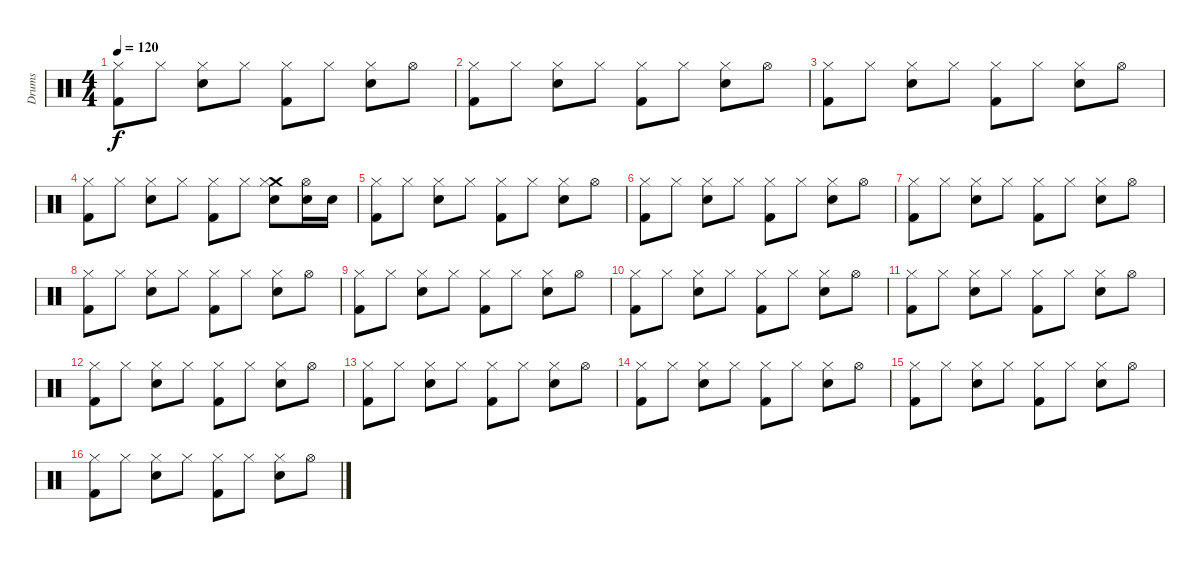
\track ("Drums" "Drums") {instrument percussion}
\staff {score}
\articulation defaults
\ts (4 4)
\tempo 120
\clef neutral
\ks c
("Hi-Hat (closed)" "Kick (hit) 2").8{dy f} "Hi-Hat (closed)".8 ("Hi-Hat (closed)" "Electric Snare (hit)").8 "Hi-Hat (closed)".8 ("Hi-Hat (closed)" "Kick (hit) 2").8 "Hi-Hat (closed)".8 ("Hi-Hat (closed)" "Electric Snare (hit)").8 "Hi-Hat (open)".8 |
("Hi-Hat (closed)" "Kick (hit) 2").8 "Hi-Hat (closed)".8 ("Hi-Hat (closed)" "Electric Snare (hit)").8 "Hi-Hat (closed)".8 ("Hi-Hat (closed)" "Kick (hit) 2").8 "Hi-Hat (closed)".8 ("Hi-Hat (closed)" "Electric Snare (hit)").8 "Hi-Hat (open)".8 |
("Hi-Hat (closed)" "Kick (hit) 2").8 "Hi-Hat (closed)".8 ("Hi-Hat (closed)" "Electric Snare (hit)").8 "Hi-Hat (closed)".8 ("Hi-Hat (closed)" "Kick (hit) 2").8 "Hi-Hat (closed)".8 ("Hi-Hat (closed)" "Electric Snare (hit)").8 "Hi-Hat (open)".8 |
("Hi-Hat (closed)" "Kick (hit) 2").8 "Hi-Hat (closed)".8 ("Hi-Hat (closed)" "Electric Snare (hit)").8 "Hi-Hat (closed)".8 ("Hi-Hat (closed)" "Kick (hit) 2").8 "Hi-Hat (closed)".8 ("Crash medium (hit)" "Hi-Hat (closed)" "Electric Snare (hit)").8 ("Electric Snare (hit)" "Hi-Hat (open)").16 "Electric Snare (hit)".16 |
("Hi-Hat (closed)" "Kick (hit) 2").8 "Hi-Hat (closed)".8 ("Hi-Hat (closed)" "Electric Snare (hit)").8 "Hi-Hat (closed)".8 ("Hi-Hat (closed)" "Kick (hit) 2").8 "Hi-Hat (closed)".8 ("Hi-Hat (closed)" "Electric Snare (hit)").8 "Hi-Hat (open)".8 |
("Hi-Hat (closed)" "Kick (hit) 2").8 "Hi-Hat (closed)".8 ("Hi-Hat (closed)" "Electric Snare (hit)").8 "Hi-Hat (closed)".8 ("Hi-Hat (closed)" "Kick (hit) 2").8 "Hi-Hat (closed)".8 ("Hi-Hat (closed)" "Electric Snare (hit)").8 "Hi-Hat (open)".8 |
("Hi-Hat (closed)" "Kick (hit) 2").8 "Hi-Hat (closed)".8 ("Hi-Hat (closed)" "Electric Snare (hit)").8 "Hi-Hat (closed)".8 ("Hi-Hat (closed)" "Kick (hit) 2").8 "Hi-Hat (closed)".8 ("Hi-Hat (closed)" "Electric Snare (hit)").8 "Hi-Hat (open)".8 |
("Hi-Hat (closed)" "Kick (hit) 2").8 "Hi-Hat (closed)".8 ("Hi-Hat (closed)" "Electric Snare (hit)").8 "Hi-Hat (closed)".8 ("Hi-Hat (closed)" "Kick (hit) 2").8 "Hi-Hat (closed)".8 ("Hi-Hat (closed)" "Electric Snare (hit)").8 "Hi-Hat (open)".8 |
("Hi-Hat (closed)" "Kick (hit) 2").8 "Hi-Hat (closed)".8 ("Hi-Hat (closed)" "Electric Snare (hit)").8 "Hi-Hat (closed)".8 ("Hi-Hat (closed)" "Kick (hit) 2").8 "Hi-Hat (closed)".8 ("Hi-Hat (closed)" "Electric Snare (hit)").8 "Hi-Hat (open)".8 |
("Hi-Hat (closed)" "Kick (hit) 2").8 "Hi-Hat (closed)".8 ("Hi-Hat (closed)" "Electric Snare (hit)").8 "Hi-Hat (closed)".8 ("Hi-Hat (closed)" "Kick (hit) 2").8 "Hi-Hat (closed)".8 ("Hi-Hat (closed)" "Electric Snare (hit)").8 "Hi-Hat (open)".8 |
("Hi-Hat (closed)" "Kick (hit) 2").8 "Hi-Hat (closed)".8 ("Hi-Hat (closed)" "Electric Snare (hit)").8 "Hi-Hat (closed)".8 ("Hi-Hat (closed)" "Kick (hit) 2").8 "Hi-Hat (closed)".8 ("Hi-Hat (closed)" "Electric Snare (hit)").8 "Hi-Hat (open)".8 |
("Hi-Hat (closed)" "Kick (hit) 2").8 "Hi-Hat (closed)".8 ("Hi-Hat (closed)" "Electric Snare (hit)").8 "Hi-Hat (closed)".8 ("Hi-Hat (closed)" "Kick (hit) 2").8 "Hi-Hat (closed)".8 ("Hi-Hat (closed)" "Electric Snare (hit)").8 "Hi-Hat (open)".8 |
("Hi-Hat (closed)" "Kick (hit) 2").8 "Hi-Hat (closed)".8 ("Hi-Hat (closed)" "Electric Snare (hit)").8 "Hi-Hat (closed)".8 ("Hi-Hat (closed)" "Kick (hit) 2").8 "Hi-Hat (closed)".8 ("Hi-Hat (closed)" "Electric Snare (hit)").8 "Hi-Hat (open)".8 |
("Hi-Hat (closed)" "Kick (hit) 2").8 "Hi-Hat (closed)".8 ("Hi-Hat (closed)" "Electric Snare (hit)").8 "Hi-Hat (closed)".8 ("Hi-Hat (closed)" "Kick (hit) 2").8 "Hi-Hat (closed)".8 ("Hi-Hat (closed)" "Electric Snare (hit)").8 "Hi-Hat (open)".8 |
("Hi-Hat (closed)" "Kick (hit) 2").8 "Hi-Hat (closed)".8 ("Hi-Hat (closed)" "Electric Snare (hit)").8 "Hi-Hat (closed)".8 ("Hi-Hat (closed)" "Kick (hit) 2").8 "Hi-Hat (closed)".8 ("Hi-Hat (closed)" "Electric Snare (hit)").8 "Hi-Hat (open)".8 |
("Hi-Hat (closed)" "Kick (hit) 2").8 "Hi-Hat (closed)".8 ("Hi-Hat (closed)" "Electric Snare (hit)").8 "Hi-Hat (closed)".8 ("Hi-Hat (closed)" "Kick (hit) 2").8 "Hi-Hat (closed)".8 ("Hi-Hat (closed)" "Electric Snare (hit)").8 "Hi-Hat (open)".8
